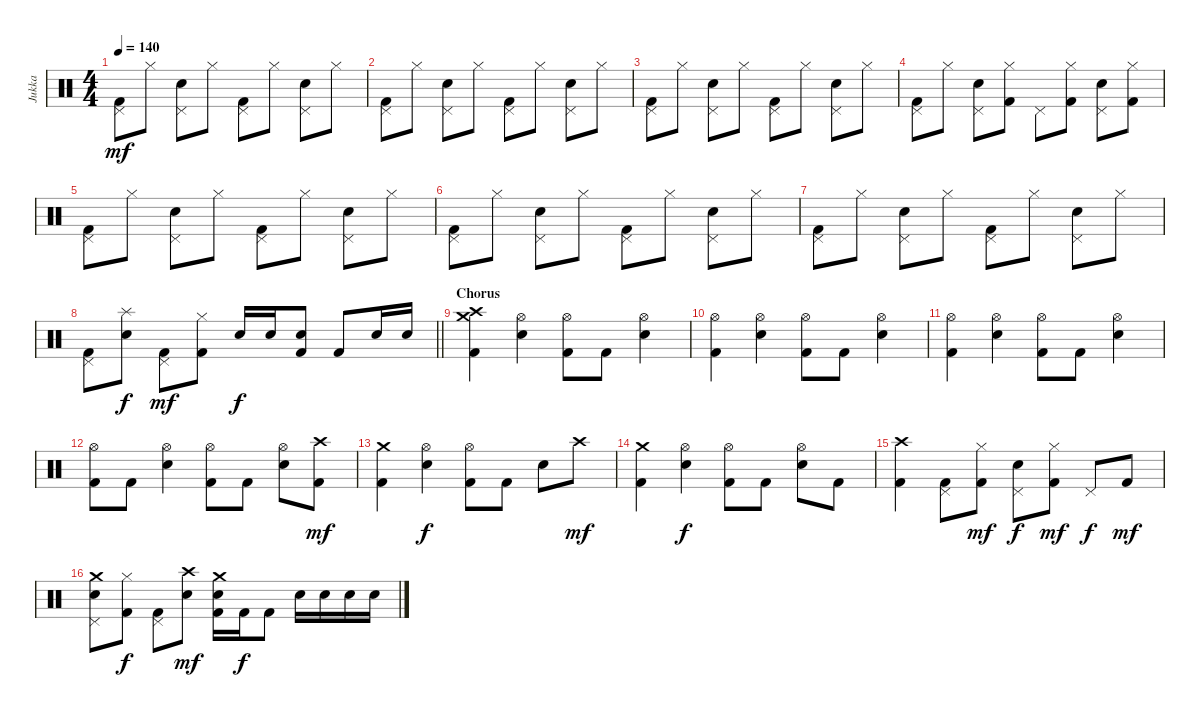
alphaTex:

\track ("Jukka" "Jukka") {instrument percussion}
\staff {score}
\articulation defaults
\ts (4 4)
\tempo 140
\clef neutral
\ks aminor
("Pedal Hi-Hat (hit)" "Kick (hit) 2").8{dy mf} "Hi-Hat (closed)".8 ("Pedal Hi-Hat (hit)" "Electric Snare (hit)").8 "Hi-Hat (closed)".8 ("Pedal Hi-Hat (hit)" "Kick (hit) 2").8 "Hi-Hat (closed)".8 ("Pedal Hi-Hat (hit)" "Electric Snare (hit)").8 "Hi-Hat (closed)".8 |
("Pedal Hi-Hat (hit)" "Kick (hit) 2").8 "Hi-Hat (closed)".8 ("Pedal Hi-Hat (hit)" "Electric Snare (hit)").8 "Hi-Hat (closed)".8 ("Pedal Hi-Hat (hit)" "Kick (hit) 2").8 "Hi-Hat (closed)".8 ("Pedal Hi-Hat (hit)" "Electric Snare (hit)").8 "Hi-Hat (closed)".8 |
("Pedal Hi-Hat (hit)" "Kick (hit) 2").8 "Hi-Hat (closed)".8 ("Pedal Hi-Hat (hit)" "Electric Snare (hit)").8 "Hi-Hat (closed)".8 ("Pedal Hi-Hat (hit)" "Kick (hit) 2").8 "Hi-Hat (closed)".8 ("Pedal Hi-Hat (hit)" "Electric Snare (hit)").8 "Hi-Hat (closed)".8 |
("Pedal Hi-Hat (hit)" "Kick (hit) 2").8 "Hi-Hat (closed)".8 ("Pedal Hi-Hat (hit)" "Electric Snare (hit)").8 ("Hi-Hat (closed)" "Kick (hit) 2").8 "Pedal Hi-Hat (hit)".8 ("Hi-Hat (closed)" "Kick (hit) 2").8 ("Pedal Hi-Hat (hit)" "Electric Snare (hit)").8 ("Hi-Hat (closed)" "Kick (hit) 2").8 |
("Pedal Hi-Hat (hit)" "Kick (hit) 2").8 "Hi-Hat (closed)".8 ("Pedal Hi-Hat (hit)" "Electric Snare (hit)").8 "Hi-Hat (closed)".8 ("Pedal Hi-Hat (hit)" "Kick (hit) 2").8 "Hi-Hat (closed)".8 ("Pedal Hi-Hat (hit)" "Electric Snare (hit)").8 "Hi-Hat (closed)".8 |
("Pedal Hi-Hat (hit)" "Kick (hit) 2").8 "Hi-Hat (closed)".8 ("Pedal Hi-Hat (hit)" "Electric Snare (hit)").8 "Hi-Hat (closed)".8 ("Pedal Hi-Hat (hit)" "Kick (hit) 2").8 "Hi-Hat (closed)".8 ("Pedal Hi-Hat (hit)" "Electric Snare (hit)").8 "Hi-Hat (closed)".8 |
("Pedal Hi-Hat (hit)" "Kick (hit) 2").8 "Hi-Hat (closed)".8 ("Pedal Hi-Hat (hit)" "Electric Snare (hit)").8 "Hi-Hat (closed)".8 ("Pedal Hi-Hat (hit)" "Kick (hit) 2").8 "Hi-Hat (closed)".8 ("Pedal Hi-Hat (hit)" "Electric Snare (hit)").8 "Hi-Hat (closed)".8 |
\barLineRight lightlight
("Pedal Hi-Hat (hit)" "Kick (hit) 2").8 ("Splash (hit)" "Electric Snare (hit)").8{dy f} ("Pedal Hi-Hat (hit)" "Kick (hit) 2").8{dy mf} ("Hi-Hat (closed)" "Kick (hit) 2").8 "Electric Snare (hit)".16{dy f} "Electric Snare (hit)".16 ("Electric Snare (hit)" "Kick (hit) 2").8 "Kick (hit) 2".8 "Electric Snare (hit)".16 "Electric Snare (hit)".16 |
\section ("" "Chorus")
("Crash medium (hit)" "Crash high (hit)" "Kick (hit) 2").4 ("Hi-Hat (open)" "Electric Snare (hit)").4 ("Hi-Hat (open)" "Kick (hit) 2").8 "Kick (hit) 2".8 ("Hi-Hat (open)" "Electric Snare (hit)").4 |
("Hi-Hat (open)" "Kick (hit) 2").4 ("Hi-Hat (open)" "Electric Snare (hit)").4 ("Hi-Hat (open)" "Kick (hit) 2").8 "Kick (hit) 2".8 ("Hi-Hat (open)" "Electric Snare (hit)").4 |
("Hi-Hat (open)" "Kick (hit) 2").4 ("Hi-Hat (open)" "Electric Snare (hit)").4 ("Hi-Hat (open)" "Kick (hit) 2").8 "Kick (hit) 2".8 ("Hi-Hat (open)" "Electric Snare (hit)").4 |
("Hi-Hat (open)" "Kick (hit) 2").8 "Kick (hit) 2".8 ("Hi-Hat (open)" "Electric Snare (hit)").4 ("Hi-Hat (open)" "Kick (hit) 2").8 "Kick (hit) 2".8 ("Hi-Hat (open)" "Electric Snare (hit)").8 ("Crash high (hit)" "Kick (hit) 2").8{dy mf} |
("Crash medium (hit)" "Kick (hit) 2").4 ("Hi-Hat (open)" "Electric Snare (hit)").4{dy f} ("Hi-Hat (open)" "Kick (hit) 2").8 "Kick (hit) 2".8 "Electric Snare (hit)".8 "Crash high (hit)".8{dy mf} |
("Crash medium (hit)" "Kick (hit) 2").4 ("Hi-Hat (open)" "Electric Snare (hit)").4{dy f} ("Hi-Hat (open)" "Kick (hit) 2").8 "Kick (hit) 2".8 ("Hi-Hat (open)" "Electric Snare (hit)").8 "Kick (hit) 2".8 |
("Crash high (hit)" "Kick (hit) 2").4 ("Pedal Hi-Hat (hit)" "Kick (hit) 2").8 ("Hi-Hat (closed)" "Kick (hit) 2").8{dy mf} ("Pedal Hi-Hat (hit)" "Electric Snare (hit)").8{dy f} ("Hi-Hat (closed)" "Kick (hit) 2").8{dy mf} "Pedal Hi-Hat (hit)".8{dy f} "Kick (hit) 2".8{dy mf} |
("Pedal Hi-Hat (hit)" "Crash medium (hit)" "Electric Snare (hit)").8 ("Hi-Hat (closed)" "Kick (hit) 2").8{dy f} ("Pedal Hi-Hat (hit)" "Kick (hit) 2").8 ("Crash high (hit)" "Electric Snare (hit)").8{dy mf} ("Crash medium (hit)" "Electric Snare (hit)" "Kick (hit) 2").16 "Kick (hit) 2".16{dy f} "Kick (hit) 2".8 "Electric Snare (hit)".16 "Electric Snare (hit)".16 "Electric Snare (hit)".16 "Electric Snare (hit)".16
